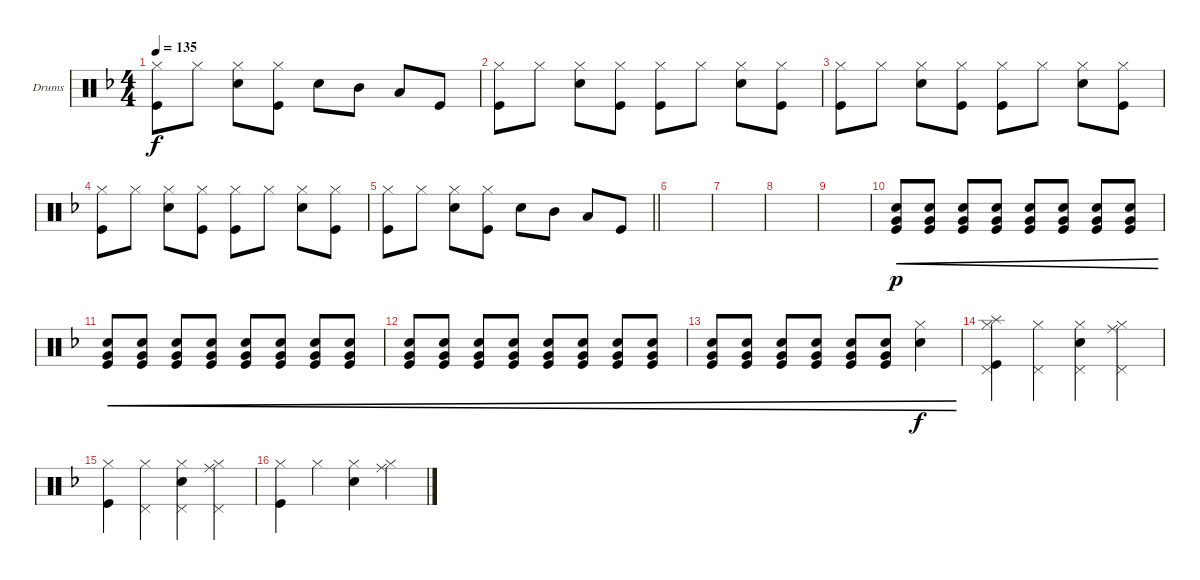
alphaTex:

\bracketExtendMode groupsimilarinstruments
\firstSystemTrackNameOrientation horizontal
\otherSystemsTrackNameOrientation horizontal
\track ("Drumkitover" "Drums") {instrument percussion}
\staff {score}
\articulation defaults
\ts (4 4)
\tempo 135
\clef neutral
\scale
0.333333
\ks dminor
("Kick (hit)" "Hi-Hat (closed)").8{dy f} "Hi-Hat (closed)".8 ("Snare (hit) 2" "Hi-Hat (closed)").8 ("Kick (hit)" "Hi-Hat (closed)").8 "Snare (hit) 2".8 "Mid Tom (hit)".8 "Low Tom (hit)".8 "Kick (hit)".8 |
\scale
0.333333 ("Kick (hit)" "Hi-Hat (closed)").8 "Hi-Hat (closed)".8 ("Snare (hit) 2" "Hi-Hat (closed)").8 ("Kick (hit)" "Hi-Hat (closed)").8 ("Kick (hit)" "Hi-Hat (closed)").8 "Hi-Hat (closed)".8 ("Snare (hit) 2" "Hi-Hat (closed)").8 ("Kick (hit)" "Hi-Hat (closed)").8 |
\scale
0.333333 ("Kick (hit)" "Hi-Hat (closed)").8 "Hi-Hat (closed)".8 ("Snare (hit) 2" "Hi-Hat (closed)").8 ("Kick (hit)" "Hi-Hat (closed)").8 ("Kick (hit)" "Hi-Hat (closed)").8 "Hi-Hat (closed)".8 ("Snare (hit) 2" "Hi-Hat (closed)").8 ("Kick (hit)" "Hi-Hat (closed)").8 |
\scale
0.333333 ("Kick (hit)" "Hi-Hat (closed)").8 "Hi-Hat (closed)".8 ("Snare (hit) 2" "Hi-Hat (closed)").8 ("Kick (hit)" "Hi-Hat (closed)").8 ("Kick (hit)" "Hi-Hat (closed)").8 "Hi-Hat (closed)".8 ("Snare (hit) 2" "Hi-Hat (closed)").8 ("Kick (hit)" "Hi-Hat (closed)").8 |
\scale
0.333333
\barLineRight lightlight
("Kick (hit)" "Hi-Hat (closed)").8 "Hi-Hat (closed)".8 ("Snare (hit) 2" "Hi-Hat (closed)").8 ("Kick (hit)" "Hi-Hat (closed)").8 "Snare (hit) 2".8 "Mid Tom (hit)".8 "Low Tom (hit)".8 "Kick (hit)".8 |
\scale
0.333333 |
\scale
0.333333 |
\scale
0.333333 |
\scale
0.333333 |
\scale
0.333333 ("Very Low Tom (hit)" "Kick (hit)" "Snare (hit) 2").8{cre dy p} ("Very Low Tom (hit)" "Kick (hit)" "Snare (hit) 2").8{cre} ("Very Low Tom (hit)" "Kick (hit)" "Snare (hit) 2").8{cre} ("Very Low Tom (hit)" "Kick (hit)" "Snare (hit) 2").8{cre} ("Very Low Tom (hit)" "Kick (hit)" "Snare (hit) 2").8{cre} ("Very Low Tom (hit)" "Kick (hit)" "Snare (hit) 2").8{cre} ("Very Low Tom (hit)" "Kick (hit)" "Snare (hit) 2").8{cre} ("Very Low Tom (hit)" "Kick (hit)" "Snare (hit) 2").8{cre} |
\scale
0.333333 ("Very Low Tom (hit)" "Kick (hit)" "Snare (hit) 2").8{cre} ("Very Low Tom (hit)" "Kick (hit)" "Snare (hit) 2").8{cre} ("Very Low Tom (hit)" "Kick (hit)" "Snare (hit) 2").8{cre} ("Very Low Tom (hit)" "Kick (hit)" "Snare (hit) 2").8{cre} ("Very Low Tom (hit)" "Kick (hit)" "Snare (hit) 2").8{cre} ("Very Low Tom (hit)" "Kick (hit)" "Snare (hit) 2").8{cre} ("Very Low Tom (hit)" "Kick (hit)" "Snare (hit) 2").8{cre} ("Very Low Tom (hit)" "Kick (hit)" "Snare (hit) 2").8{cre} |
\scale
0.333333 ("Very Low Tom (hit)" "Kick (hit)" "Snare (hit) 2").8{cre} ("Very Low Tom (hit)" "Kick (hit)" "Snare (hit) 2").8{cre} ("Very Low Tom (hit)" "Kick (hit)" "Snare (hit) 2").8{cre} ("Very Low Tom (hit)" "Kick (hit)" "Snare (hit) 2").8{cre} ("Very Low Tom (hit)" "Kick (hit)" "Snare (hit) 2").8{cre} ("Very Low Tom (hit)" "Kick (hit)" "Snare (hit) 2").8{cre} ("Very Low Tom (hit)" "Kick (hit)" "Snare (hit) 2").8{cre} ("Very Low Tom (hit)" "Kick (hit)" "Snare (hit) 2").8{cre} |
\scale
0.333333 ("Very Low Tom (hit)" "Kick (hit)" "Snare (hit) 2").8{cre} ("Very Low Tom (hit)" "Kick (hit)" "Snare (hit) 2").8{cre} ("Very Low Tom (hit)" "Kick (hit)" "Snare (hit) 2").8{cre} ("Very Low Tom (hit)" "Kick (hit)" "Snare (hit) 2").8{cre} ("Very Low Tom (hit)" "Kick (hit)" "Snare (hit) 2").8{cre} ("Very Low Tom (hit)" "Kick (hit)" "Snare (hit) 2").8{cre} ("Snare (hit) 2" "Hi-Hat (closed)").4{cre dy f} |
\scale
0.333333 ("Kick (hit)" "Hi-Hat (closed)" "Pedal Hi-Hat (hit)" "Splash (hit)").4 ("Hi-Hat (closed)" "Pedal Hi-Hat (hit)").4 ("Snare (hit) 2" "Hi-Hat (closed)" "Pedal Hi-Hat (hit)").4 ("Hi-Hat (closed)" "Pedal Hi-Hat (hit)" "Ride (middle)").4 |
\scale
0.333333 ("Kick (hit)" "Hi-Hat (closed)").4 ("Hi-Hat (closed)" "Pedal Hi-Hat (hit)").4 ("Snare (hit) 2" "Hi-Hat (closed)" "Pedal Hi-Hat (hit)").4 ("Hi-Hat (closed)" "Pedal Hi-Hat (hit)" "Ride (middle)").4 |
("Kick (hit)" "Hi-Hat (closed)").4 "Hi-Hat (closed)".4 ("Snare (hit) 2" "Hi-Hat (closed)").4 ("Hi-Hat (closed)" "Ride (middle)").4
